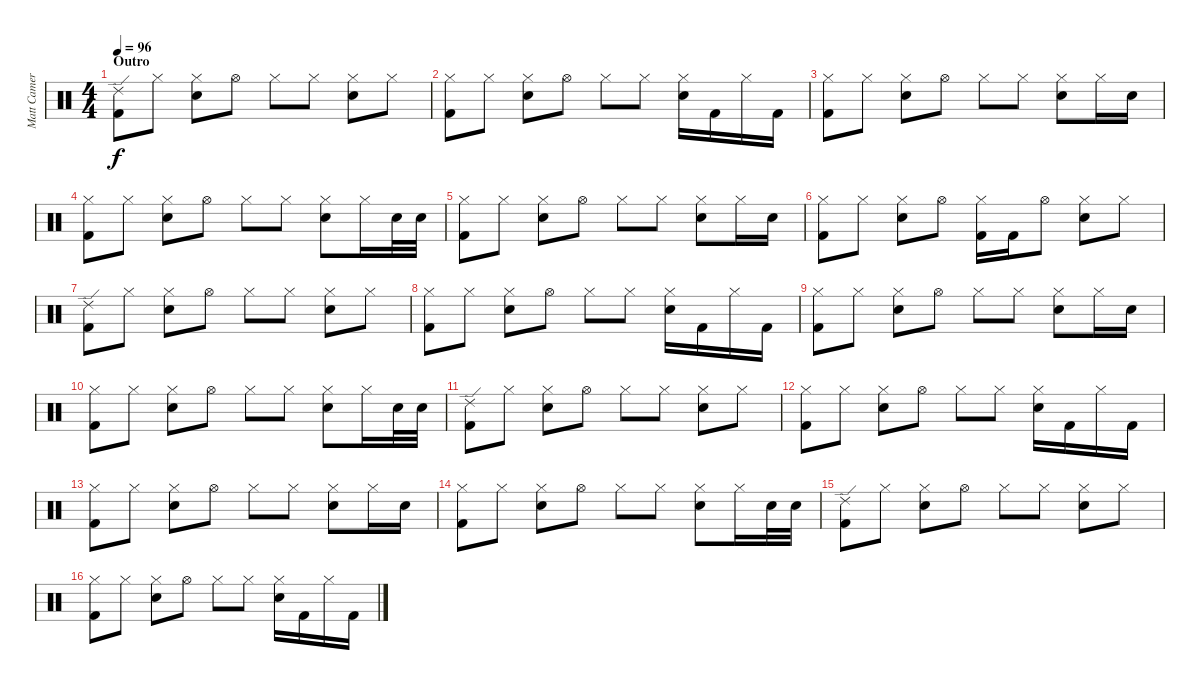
\track ("Matt Cameron" "Matt Camer") {instrument percussion}
\staff {score}
\articulation defaults
\ts (4 4)
\section ("" "Outro")
\tempo 96
\clef neutral
\ks c
("Ride (edge) 2" "Kick (hit) 2").8{dy f} "Hi-Hat (closed)".8 ("Hi-Hat (closed)" "Electric Snare (hit)").8 "Hi-Hat (open)".8 "Hi-Hat (closed)".8 "Hi-Hat (closed)".8 ("Hi-Hat (closed)" "Electric Snare (hit)").8 "Hi-Hat (closed)".8 |
("Hi-Hat (closed)" "Kick (hit) 2").8 "Hi-Hat (closed)".8 ("Hi-Hat (closed)" "Electric Snare (hit)").8 "Hi-Hat (open)".8 "Hi-Hat (closed)".8 "Hi-Hat (closed)".8 ("Hi-Hat (closed)" "Electric Snare (hit)").16 "Kick (hit) 2".16 "Hi-Hat (closed)".16 "Kick (hit) 2".16 |
("Hi-Hat (closed)" "Kick (hit) 2").8 "Hi-Hat (closed)".8 ("Hi-Hat (closed)" "Electric Snare (hit)").8 "Hi-Hat (open)".8 "Hi-Hat (closed)".8 "Hi-Hat (closed)".8 ("Hi-Hat (closed)" "Electric Snare (hit)").8 "Hi-Hat (closed)".16 "Electric Snare (hit)".16 |
("Hi-Hat (closed)" "Kick (hit) 2").8 "Hi-Hat (closed)".8 ("Hi-Hat (closed)" "Electric Snare (hit)").8 "Hi-Hat (open)".8 "Hi-Hat (closed)".8 "Hi-Hat (closed)".8 ("Hi-Hat (closed)" "Electric Snare (hit)").8 "Hi-Hat (closed)".16 "Electric Snare (hit)".32 "Electric Snare (hit)".32 |
("Hi-Hat (closed)" "Kick (hit) 2").8 "Hi-Hat (closed)".8 ("Hi-Hat (closed)" "Electric Snare (hit)").8 "Hi-Hat (open)".8 "Hi-Hat (closed)".8 "Hi-Hat (closed)".8 ("Hi-Hat (closed)" "Electric Snare (hit)").8 "Hi-Hat (closed)".16 "Electric Snare (hit)".16 |
("Hi-Hat (closed)" "Kick (hit) 2").8 "Hi-Hat (closed)".8 ("Hi-Hat (closed)" "Electric Snare (hit)").8 "Hi-Hat (open)".8 ("Hi-Hat (closed)" "Kick (hit) 2").16 "Kick (hit) 2".16 "Hi-Hat (open)".8 ("Hi-Hat (closed)" "Electric Snare (hit)").8 "Hi-Hat (closed)".8 |
("Ride (edge) 2" "Kick (hit) 2").8 "Hi-Hat (closed)".8 ("Hi-Hat (closed)" "Electric Snare (hit)").8 "Hi-Hat (open)".8 "Hi-Hat (closed)".8 "Hi-Hat (closed)".8 ("Hi-Hat (closed)" "Electric Snare (hit)").8 "Hi-Hat (closed)".8 |
("Hi-Hat (closed)" "Kick (hit) 2").8 "Hi-Hat (closed)".8 ("Hi-Hat (closed)" "Electric Snare (hit)").8 "Hi-Hat (open)".8 "Hi-Hat (closed)".8 "Hi-Hat (closed)".8 ("Hi-Hat (closed)" "Electric Snare (hit)").16 "Kick (hit) 2".16 "Hi-Hat (closed)".16 "Kick (hit) 2".16 |
("Hi-Hat (closed)" "Kick (hit) 2").8 "Hi-Hat (closed)".8 ("Hi-Hat (closed)" "Electric Snare (hit)").8 "Hi-Hat (open)".8 "Hi-Hat (closed)".8 "Hi-Hat (closed)".8 ("Hi-Hat (closed)" "Electric Snare (hit)").8 "Hi-Hat (closed)".16 "Electric Snare (hit)".16 |
("Hi-Hat (closed)" "Kick (hit) 2").8 "Hi-Hat (closed)".8 ("Hi-Hat (closed)" "Electric Snare (hit)").8 "Hi-Hat (open)".8 "Hi-Hat (closed)".8 "Hi-Hat (closed)".8 ("Hi-Hat (closed)" "Electric Snare (hit)").8 "Hi-Hat (closed)".16 "Electric Snare (hit)".32 "Electric Snare (hit)".32 |
("Ride (edge) 2" "Kick (hit) 2").8 "Hi-Hat (closed)".8 ("Hi-Hat (closed)" "Electric Snare (hit)").8 "Hi-Hat (open)".8 "Hi-Hat (closed)".8 "Hi-Hat (closed)".8 ("Hi-Hat (closed)" "Electric Snare (hit)").8 "Hi-Hat (closed)".8 |
("Hi-Hat (closed)" "Kick (hit) 2").8 "Hi-Hat (closed)".8 ("Hi-Hat (closed)" "Electric Snare (hit)").8 "Hi-Hat (open)".8 "Hi-Hat (closed)".8 "Hi-Hat (closed)".8 ("Hi-Hat (closed)" "Electric Snare (hit)").16 "Kick (hit) 2".16 "Hi-Hat (closed)".16 "Kick (hit) 2".16 |
("Hi-Hat (closed)" "Kick (hit) 2").8 "Hi-Hat (closed)".8 ("Hi-Hat (closed)" "Electric Snare (hit)").8 "Hi-Hat (open)".8 "Hi-Hat (closed)".8 "Hi-Hat (closed)".8 ("Hi-Hat (closed)" "Electric Snare (hit)").8 "Hi-Hat (closed)".16 "Electric Snare (hit)".16 |
("Hi-Hat (closed)" "Kick (hit) 2").8 "Hi-Hat (closed)".8 ("Hi-Hat (closed)" "Electric Snare (hit)").8 "Hi-Hat (open)".8 "Hi-Hat (closed)".8 "Hi-Hat (closed)".8 ("Hi-Hat (closed)" "Electric Snare (hit)").8 "Hi-Hat (closed)".16 "Electric Snare (hit)".32 "Electric Snare (hit)".32 |
("Ride (edge) 2" "Kick (hit) 2").8 "Hi-Hat (closed)".8 ("Hi-Hat (closed)" "Electric Snare (hit)").8 "Hi-Hat (open)".8 "Hi-Hat (closed)".8 "Hi-Hat (closed)".8 ("Hi-Hat (closed)" "Electric Snare (hit)").8 "Hi-Hat (closed)".8 |
("Hi-Hat (closed)" "Kick (hit) 2").8 "Hi-Hat (closed)".8 ("Hi-Hat (closed)" "Electric Snare (hit)").8 "Hi-Hat (open)".8 "Hi-Hat (closed)".8 "Hi-Hat (closed)".8 ("Hi-Hat (closed)" "Electric Snare (hit)").16 "Kick (hit) 2".16 "Hi-Hat (closed)".16 "Kick (hit) 2".16
